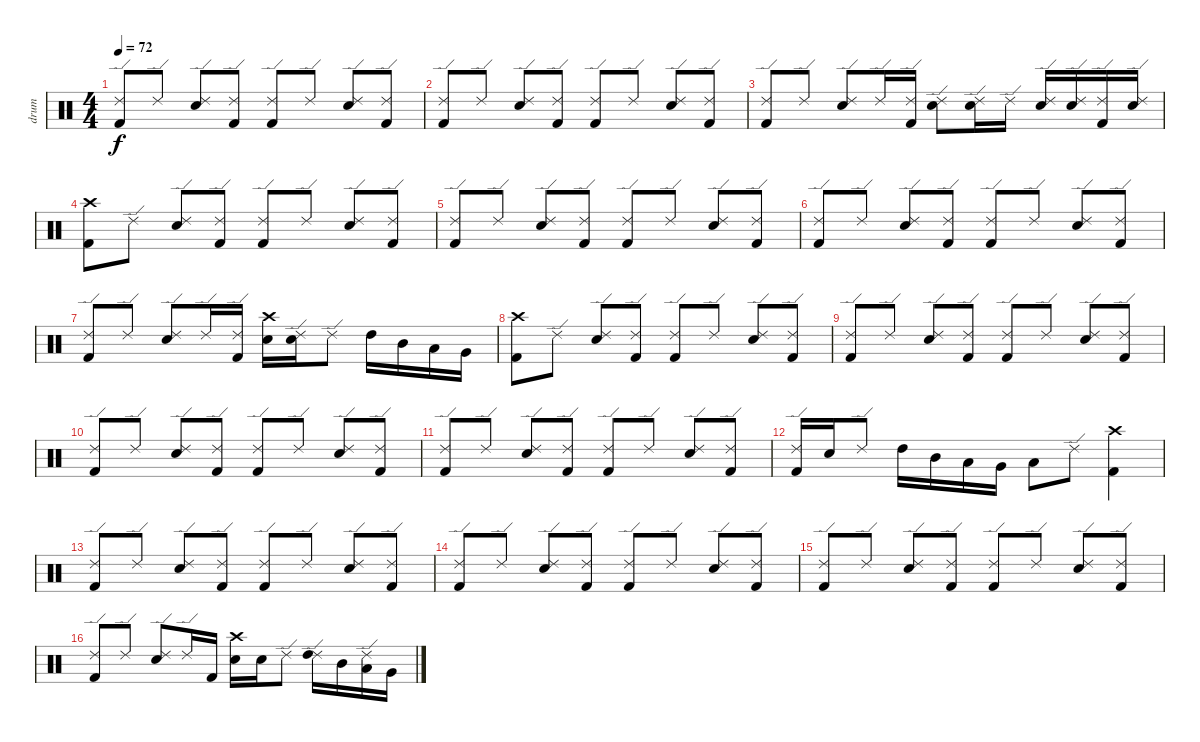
\track ("drum" "drum") {instrument percussion}
\staff {score}
\articulation defaults
\ts (4 4)
\tempo 72
\clef neutral
\ks c
("Ride (edge) 2" "Kick (hit) 2").8{dy f} "Ride (edge) 2".8 ("Ride (edge) 2" "Snare (hit) 2").8 ("Ride (edge) 2" "Kick (hit) 2").8 ("Ride (edge) 2" "Kick (hit) 2").8 "Ride (edge) 2".8 ("Ride (edge) 2" "Snare (hit) 2").8 ("Ride (edge) 2" "Kick (hit) 2").8 |
("Ride (edge) 2" "Kick (hit) 2").8 "Ride (edge) 2".8 ("Ride (edge) 2" "Snare (hit) 2").8 ("Ride (edge) 2" "Kick (hit) 2").8 ("Ride (edge) 2" "Kick (hit) 2").8 "Ride (edge) 2".8 ("Ride (edge) 2" "Snare (hit) 2").8 ("Ride (edge) 2" "Kick (hit) 2").8 |
("Ride (edge) 2" "Kick (hit) 2").8 "Ride (edge) 2".8 ("Ride (edge) 2" "Snare (hit) 2").8 "Ride (edge) 2".16 ("Ride (edge) 2" "Kick (hit) 2").16 ("Ride (edge) 2" "Snare (hit) 2").8 ("Ride (edge) 2" "Snare (hit) 2").16 "Ride (edge) 2".16 ("Ride (edge) 2" "Snare (hit) 2").16 ("Ride (edge) 2" "Snare (hit) 2").16 ("Ride (edge) 2" "Kick (hit) 2").16 ("Ride (edge) 2" "Snare (hit) 2").16 |
("Crash high (hit)" "Kick (hit) 2").8 "Ride (edge) 2".8 ("Ride (edge) 2" "Snare (hit) 2").8 ("Ride (edge) 2" "Kick (hit) 2").8 ("Ride (edge) 2" "Kick (hit) 2").8 "Ride (edge) 2".8 ("Ride (edge) 2" "Snare (hit) 2").8 ("Ride (edge) 2" "Kick (hit) 2").8 |
("Ride (edge) 2" "Kick (hit) 2").8 "Ride (edge) 2".8 ("Ride (edge) 2" "Snare (hit) 2").8 ("Ride (edge) 2" "Kick (hit) 2").8 ("Ride (edge) 2" "Kick (hit) 2").8 "Ride (edge) 2".8 ("Ride (edge) 2" "Snare (hit) 2").8 ("Ride (edge) 2" "Kick (hit) 2").8 |
("Ride (edge) 2" "Kick (hit) 2").8 "Ride (edge) 2".8 ("Ride (edge) 2" "Snare (hit) 2").8 ("Ride (edge) 2" "Kick (hit) 2").8 ("Ride (edge) 2" "Kick (hit) 2").8 "Ride (edge) 2".8 ("Ride (edge) 2" "Snare (hit) 2").8 ("Ride (edge) 2" "Kick (hit) 2").8 |
("Ride (edge) 2" "Kick (hit) 2").8 "Ride (edge) 2".8 ("Ride (edge) 2" "Snare (hit) 2").8 "Ride (edge) 2".16 ("Ride (edge) 2" "Kick (hit) 2").16 ("Crash high (hit)" "Snare (hit) 2").16 ("Ride (edge) 2" "Snare (hit) 2").16 "Ride (edge) 2".8 "High Tom (hit)".16 "Mid Tom (hit)".16 "Low Tom (hit)".16 "Very Low Tom (hit)".16 |
("Crash high (hit)" "Kick (hit) 2").8 "Ride (edge) 2".8 ("Ride (edge) 2" "Snare (hit) 2").8 ("Ride (edge) 2" "Kick (hit) 2").8 ("Ride (edge) 2" "Kick (hit) 2").8 "Ride (edge) 2".8 ("Ride (edge) 2" "Snare (hit) 2").8 ("Ride (edge) 2" "Kick (hit) 2").8 |
("Ride (edge) 2" "Kick (hit) 2").8 "Ride (edge) 2".8 ("Ride (edge) 2" "Snare (hit) 2").8 ("Ride (edge) 2" "Kick (hit) 2").8 ("Ride (edge) 2" "Kick (hit) 2").8 "Ride (edge) 2".8 ("Ride (edge) 2" "Snare (hit) 2").8 ("Ride (edge) 2" "Kick (hit) 2").8 |
("Ride (edge) 2" "Kick (hit) 2").8 "Ride (edge) 2".8 ("Ride (edge) 2" "Snare (hit) 2").8 ("Ride (edge) 2" "Kick (hit) 2").8 ("Ride (edge) 2" "Kick (hit) 2").8 "Ride (edge) 2".8 ("Ride (edge) 2" "Snare (hit) 2").8 ("Ride (edge) 2" "Kick (hit) 2").8 |
("Ride (edge) 2" "Kick (hit) 2").8 "Ride (edge) 2".8 ("Ride (edge) 2" "Snare (hit) 2").8 ("Ride (edge) 2" "Kick (hit) 2").8 ("Ride (edge) 2" "Kick (hit) 2").8 "Ride (edge) 2".8 ("Ride (edge) 2" "Snare (hit) 2").8 ("Ride (edge) 2" "Kick (hit) 2").8 |
("Ride (edge) 2" "Kick (hit) 2").16 "Snare (hit) 2".16 "Ride (edge) 2".8 "High Tom (hit)".16 "Mid Tom (hit)".16 "Low Tom (hit)".16 "Very Low Tom (hit)".16 "Low Floor Tom (hit)".8 "Ride (edge) 2".8 ("Crash high (hit)" "Kick (hit) 2").4 |
("Ride (edge) 2" "Kick (hit) 2").8 "Ride (edge) 2".8 ("Ride (edge) 2" "Snare (hit) 2").8 ("Ride (edge) 2" "Kick (hit) 2").8 ("Ride (edge) 2" "Kick (hit) 2").8 "Ride (edge) 2".8 ("Ride (edge) 2" "Snare (hit) 2").8 ("Ride (edge) 2" "Kick (hit) 2").8 |
("Ride (edge) 2" "Kick (hit) 2").8 "Ride (edge) 2".8 ("Ride (edge) 2" "Snare (hit) 2").8 ("Ride (edge) 2" "Kick (hit) 2").8 ("Ride (edge) 2" "Kick (hit) 2").8 "Ride (edge) 2".8 ("Ride (edge) 2" "Snare (hit) 2").8 ("Ride (edge) 2" "Kick (hit) 2").8 |
("Ride (edge) 2" "Kick (hit) 2").8 "Ride (edge) 2".8 ("Ride (edge) 2" "Snare (hit) 2").8 ("Ride (edge) 2" "Kick (hit) 2").8 ("Ride (edge) 2" "Kick (hit) 2").8 "Ride (edge) 2".8 ("Ride (edge) 2" "Snare (hit) 2").8 ("Ride (edge) 2" "Kick (hit) 2").8 |
("Ride (edge) 2" "Kick (hit) 2").8 "Ride (edge) 2".8 ("Ride (edge) 2" "Snare (hit) 2").8 "Ride (edge) 2".16 "Kick (hit) 2".16 ("Crash high (hit)" "Snare (hit) 2").16 "Snare (hit) 2".16 "Ride (edge) 2".8 ("Ride (edge) 2" "High Tom (hit)").16 "Mid Tom (hit)".16 ("Ride (edge) 2" "Low Tom (hit)").16 "Very Low Tom (hit)".16
